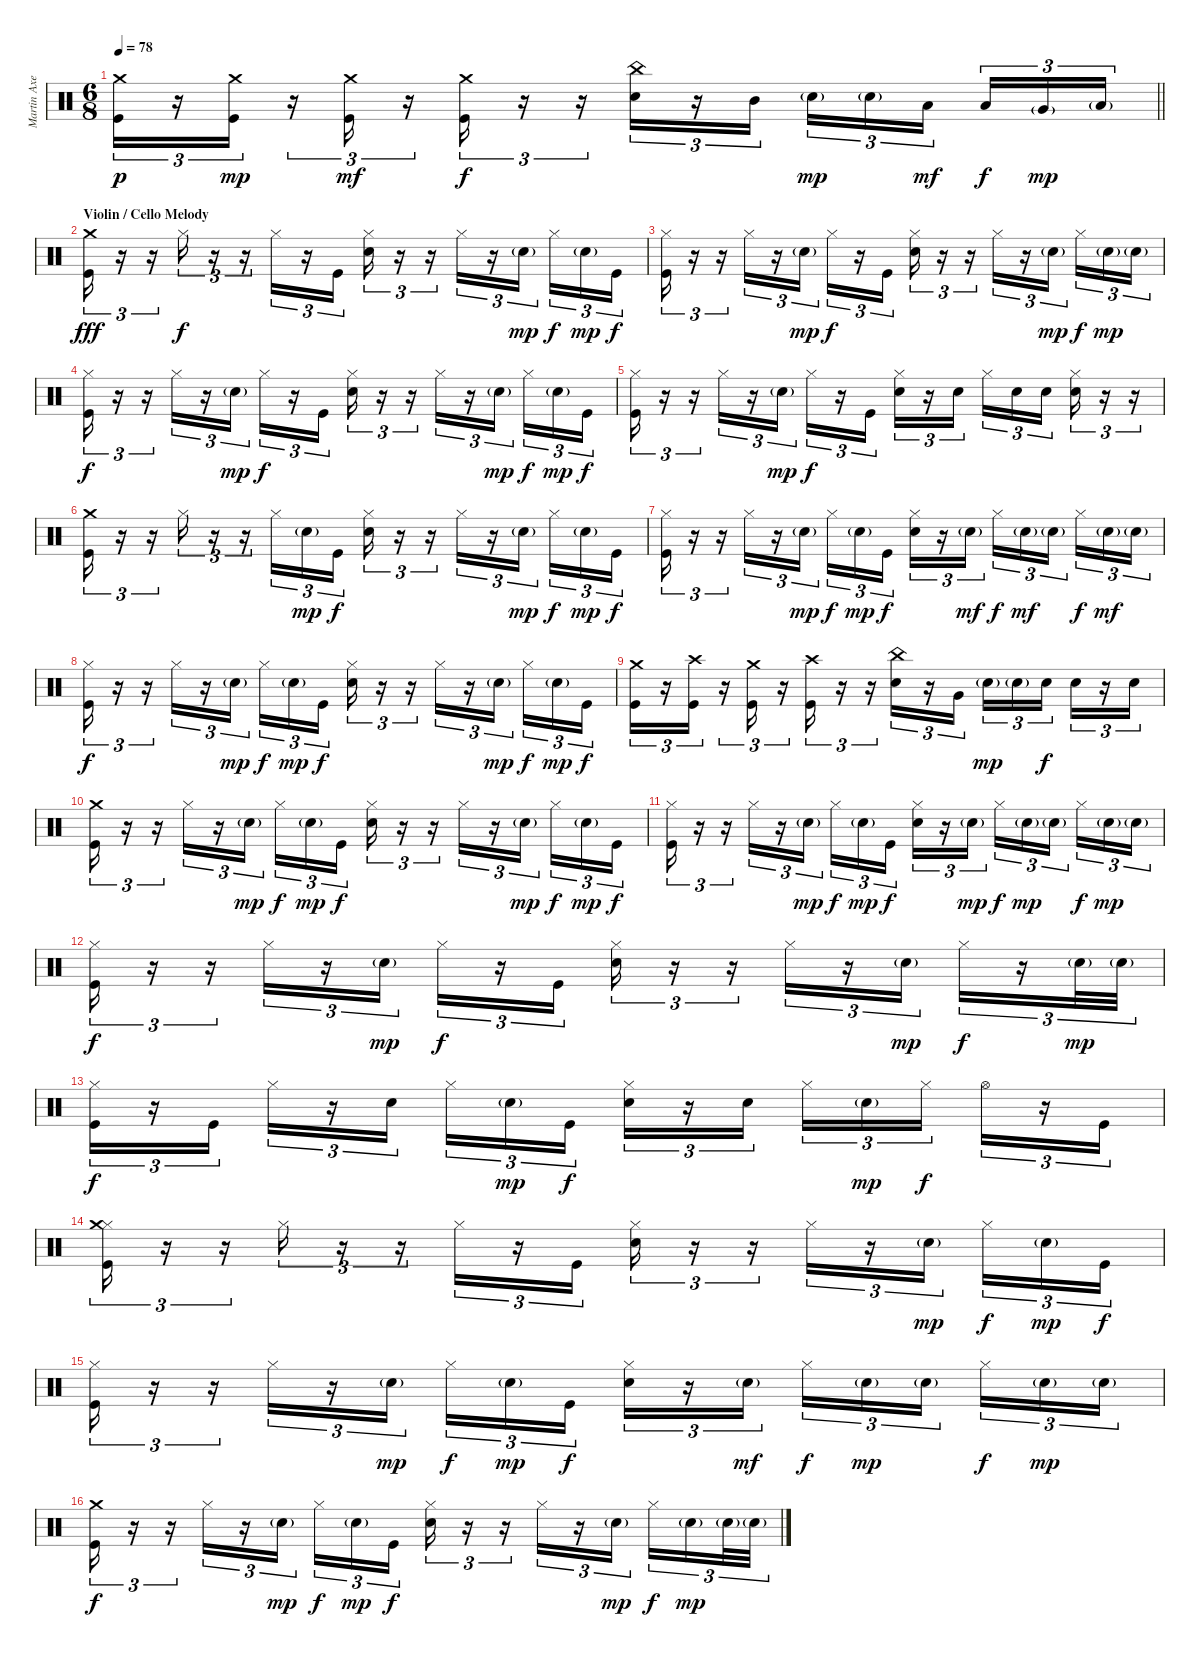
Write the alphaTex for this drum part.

\track ("Martin Axenrot" "Martin Axe") {instrument percussion}
\staff {score}
\articulation defaults
\ts (6 8)
\tempo 78
\clef neutral
\barLineRight lightlight
\ks c
("Crash medium (hit)" "Kick (hit)").16{tu (3 2) dy p} r.16{tu (3 2)} ("Crash medium (hit)" "Kick (hit)").16{tu (3 2) dy mp} r.16{tu (3 2)} ("Crash medium (hit)" "Kick (hit)").16{tu (3 2) dy mf} r.16{tu (3 2)} ("Crash medium (hit)" "Kick (hit)").16{tu (3 2) dy f} r.16{tu (3 2)} r.16{tu (3 2)} ("China (hit)" "Snare (hit) 2").16{tu (3 2)} r.16{tu (3 2)} "Mid Tom (hit)".16{tu (3 2) beam splitsecondary} "Snare (hit) 2"{g}.16{tu (3 2) dy mp} "Snare (hit) 2"{g}.16{tu (3 2)} "Low Tom (hit)".16{tu (3 2) dy mf beam splitsecondary} "Low Tom (hit)".16{tu (3 2) dy f} "Very Low Tom (hit)"{g}.16{tu (3 2) dy mp} "Low Floor Tom (hit)"{g}.16{tu (3 2)} |
\section ("" "Violin / Cello Melody")
("Crash medium (hit)" "Kick (hit)").16{tu (3 2) dy fff} r.16{tu (3 2)} r.16{tu (3 2)} "Hi-Hat (closed)".16{tu (3 2) dy f} r.16{tu (3 2)} r.16{tu (3 2)} "Hi-Hat (closed)".16{tu (3 2)} r.16{tu (3 2)} "Kick (hit)".16{tu (3 2)} ("Hi-Hat (closed)" "Snare (hit) 2").16{tu (3 2)} r.16{tu (3 2)} r.16{tu (3 2)} "Hi-Hat (closed)".16{tu (3 2)} r.16{tu (3 2)} "Snare (hit) 2"{g}.16{tu (3 2) dy mp beam splitsecondary} "Hi-Hat (closed)".16{tu (3 2) dy f} "Snare (hit) 2"{g}.16{tu (3 2) dy mp} "Kick (hit)".16{tu (3 2) dy f} |
("Hi-Hat (closed)" "Kick (hit)").16{tu (3 2)} r.16{tu (3 2)} r.16{tu (3 2)} "Hi-Hat (closed)".16{tu (3 2)} r.16{tu (3 2)} "Snare (hit) 2"{g}.16{tu (3 2) dy mp} "Hi-Hat (closed)".16{tu (3 2) dy f} r.16{tu (3 2)} "Kick (hit)".16{tu (3 2)} ("Hi-Hat (closed)" "Snare (hit) 2").16{tu (3 2)} r.16{tu (3 2)} r.16{tu (3 2)} "Hi-Hat (closed)".16{tu (3 2)} r.16{tu (3 2)} "Snare (hit) 2"{g}.16{tu (3 2) dy mp beam splitsecondary} "Hi-Hat (closed)".16{tu (3 2) dy f} "Snare (hit) 2"{g}.16{tu (3 2) dy mp} "Snare (hit) 2"{g}.16{tu (3 2)} |
("Hi-Hat (closed)" "Kick (hit)").16{tu (3 2) dy f} r.16{tu (3 2)} r.16{tu (3 2)} "Hi-Hat (closed)".16{tu (3 2)} r.16{tu (3 2)} "Snare (hit) 2"{g}.16{tu (3 2) dy mp} "Hi-Hat (closed)".16{tu (3 2) dy f} r.16{tu (3 2)} "Kick (hit)".16{tu (3 2)} ("Hi-Hat (closed)" "Snare (hit) 2").16{tu (3 2)} r.16{tu (3 2)} r.16{tu (3 2)} "Hi-Hat (closed)".16{tu (3 2)} r.16{tu (3 2)} "Snare (hit) 2"{g}.16{tu (3 2) dy mp beam splitsecondary} "Hi-Hat (closed)".16{tu (3 2) dy f} "Snare (hit) 2"{g}.16{tu (3 2) dy mp} "Kick (hit)".16{tu (3 2) dy f} |
("Hi-Hat (closed)" "Kick (hit)").16{tu (3 2)} r.16{tu (3 2)} r.16{tu (3 2)} "Hi-Hat (closed)".16{tu (3 2)} r.16{tu (3 2)} "Snare (hit) 2"{g}.16{tu (3 2) dy mp} "Hi-Hat (closed)".16{tu (3 2) dy f} r.16{tu (3 2)} "Kick (hit)".16{tu (3 2)} ("Hi-Hat (closed)" "Snare (hit) 2").16{tu (3 2)} r.16{tu (3 2)} "Snare (hit) 2".16{tu (3 2) beam splitsecondary} "Hi-Hat (closed)".16{tu (3 2)} "Snare (hit) 2".16{tu (3 2)} "Snare (hit) 2".16{tu (3 2) beam splitsecondary} ("Hi-Hat (closed)" "Snare (hit) 2").16{tu (3 2)} r.16{tu (3 2)} r.16{tu (3 2)} |
("Crash medium (hit)" "Kick (hit)").16{tu (3 2)} r.16{tu (3 2)} r.16{tu (3 2)} "Hi-Hat (closed)".16{tu (3 2)} r.16{tu (3 2)} r.16{tu (3 2)} "Hi-Hat (closed)".16{tu (3 2)} "Snare (hit) 2"{g}.16{tu (3 2) dy mp} "Kick (hit)".16{tu (3 2) dy f} ("Hi-Hat (closed)" "Snare (hit) 2").16{tu (3 2)} r.16{tu (3 2)} r.16{tu (3 2)} "Hi-Hat (closed)".16{tu (3 2)} r.16{tu (3 2)} "Snare (hit) 2"{g}.16{tu (3 2) dy mp beam splitsecondary} "Hi-Hat (closed)".16{tu (3 2) dy f} "Snare (hit) 2"{g}.16{tu (3 2) dy mp} "Kick (hit)".16{tu (3 2) dy f} |
("Hi-Hat (closed)" "Kick (hit)").16{tu (3 2)} r.16{tu (3 2)} r.16{tu (3 2)} "Hi-Hat (closed)".16{tu (3 2)} r.16{tu (3 2)} "Snare (hit) 2"{g}.16{tu (3 2) dy mp beam splitsecondary} "Hi-Hat (closed)".16{tu (3 2) dy f} "Snare (hit) 2"{g}.16{tu (3 2) dy mp} "Kick (hit)".16{tu (3 2) dy f} ("Hi-Hat (closed)" "Snare (hit) 2").16{tu (3 2)} r.16{tu (3 2)} "Snare (hit) 2"{g}.16{tu (3 2) dy mf beam splitsecondary} "Hi-Hat (closed)".16{tu (3 2) dy f} "Snare (hit) 2"{g}.16{tu (3 2) dy mf} "Snare (hit) 2"{g}.16{tu (3 2) beam splitsecondary} "Hi-Hat (closed)".16{tu (3 2) dy f} "Snare (hit) 2"{g}.16{tu (3 2) dy mf} "Snare (hit) 2"{g}.16{tu (3 2)} |
("Hi-Hat (closed)" "Kick (hit)").16{tu (3 2) dy f} r.16{tu (3 2)} r.16{tu (3 2)} "Hi-Hat (closed)".16{tu (3 2)} r.16{tu (3 2)} "Snare (hit) 2"{g}.16{tu (3 2) dy mp beam splitsecondary} "Hi-Hat (closed)".16{tu (3 2) dy f} "Snare (hit) 2"{g}.16{tu (3 2) dy mp} "Kick (hit)".16{tu (3 2) dy f} ("Hi-Hat (closed)" "Snare (hit) 2").16{tu (3 2)} r.16{tu (3 2)} r.16{tu (3 2)} "Hi-Hat (closed)".16{tu (3 2)} r.16{tu (3 2)} "Snare (hit) 2"{g}.16{tu (3 2) dy mp beam splitsecondary} "Hi-Hat (closed)".16{tu (3 2) dy f} "Snare (hit) 2"{g}.16{tu (3 2) dy mp} "Kick (hit)".16{tu (3 2) dy f} |
("Crash medium (hit)" "Kick (hit)").16{tu (3 2)} r.16{tu (3 2)} ("Crash high (hit)" "Kick (hit)").16{tu (3 2)} r.16{tu (3 2)} ("Crash medium (hit)" "Kick (hit)").16{tu (3 2)} r.16{tu (3 2)} ("Crash high (hit)" "Kick (hit)").16{tu (3 2)} r.16{tu (3 2)} r.16{tu (3 2)} ("China (hit)" "Snare (hit) 2").16{tu (3 2)} r.16{tu (3 2)} "Very Low Tom (hit)".16{tu (3 2) beam splitsecondary} "Snare (hit) 2"{g}.16{tu (3 2) dy mp} "Snare (hit) 2"{g}.16{tu (3 2)} "Snare (hit) 2".16{tu (3 2) dy f beam splitsecondary} "Snare (hit) 2".16{tu (3 2)} r.16{tu (3 2)} "Snare (hit) 2".16{tu (3 2)} |
("Crash medium (hit)" "Kick (hit)").16{tu (3 2)} r.16{tu (3 2)} r.16{tu (3 2)} "Hi-Hat (closed)".16{tu (3 2)} r.16{tu (3 2)} "Snare (hit) 2"{g}.16{tu (3 2) dy mp beam splitsecondary} "Hi-Hat (closed)".16{tu (3 2) dy f} "Snare (hit) 2"{g}.16{tu (3 2) dy mp} "Kick (hit)".16{tu (3 2) dy f} ("Hi-Hat (closed)" "Snare (hit) 2").16{tu (3 2)} r.16{tu (3 2)} r.16{tu (3 2)} "Hi-Hat (closed)".16{tu (3 2)} r.16{tu (3 2)} "Snare (hit) 2"{g}.16{tu (3 2) dy mp beam splitsecondary} "Hi-Hat (closed)".16{tu (3 2) dy f} "Snare (hit) 2"{g}.16{tu (3 2) dy mp} "Kick (hit)".16{tu (3 2) dy f} |
("Hi-Hat (closed)" "Kick (hit)").16{tu (3 2)} r.16{tu (3 2)} r.16{tu (3 2)} "Hi-Hat (closed)".16{tu (3 2)} r.16{tu (3 2)} "Snare (hit) 2"{g}.16{tu (3 2) dy mp beam splitsecondary} "Hi-Hat (closed)".16{tu (3 2) dy f} "Snare (hit) 2"{g}.16{tu (3 2) dy mp} "Kick (hit)".16{tu (3 2) dy f} ("Hi-Hat (closed)" "Snare (hit) 2").16{tu (3 2)} r.16{tu (3 2)} "Snare (hit) 2"{g}.16{tu (3 2) dy mp beam splitsecondary} "Hi-Hat (closed)".16{tu (3 2) dy f} "Snare (hit) 2"{g}.16{tu (3 2) dy mp} "Snare (hit) 2"{g}.16{tu (3 2) beam splitsecondary} "Hi-Hat (closed)".16{tu (3 2) dy f} "Snare (hit) 2"{g}.16{tu (3 2) dy mp} "Snare (hit) 2"{g}.16{tu (3 2)} |
("Hi-Hat (closed)" "Kick (hit)").16{tu (3 2) dy f} r.16{tu (3 2)} r.16{tu (3 2)} "Hi-Hat (closed)".16{tu (3 2)} r.16{tu (3 2)} "Snare (hit) 2"{g}.16{tu (3 2) dy mp} "Hi-Hat (closed)".16{tu (3 2) dy f} r.16{tu (3 2)} "Kick (hit)".16{tu (3 2)} ("Hi-Hat (closed)" "Snare (hit) 2").16{tu (3 2)} r.16{tu (3 2)} r.16{tu (3 2)} "Hi-Hat (closed)".16{tu (3 2)} r.16{tu (3 2)} "Snare (hit) 2"{g}.16{tu (3 2) dy mp} "Hi-Hat (closed)".16{tu (3 2) dy f} r.16{tu (3 2)} "Snare (hit) 2"{g}.32{tu (3 2) dy mp} "Snare (hit) 2"{g}.32{tu (3 2)} |
("Hi-Hat (closed)" "Kick (hit)").16{tu (3 2) dy f} r.16{tu (3 2)} "Kick (hit)".16{tu (3 2)} "Hi-Hat (closed)".16{tu (3 2)} r.16{tu (3 2)} "Snare (hit) 2".16{tu (3 2) beam splitsecondary} "Hi-Hat (closed)".16{tu (3 2)} "Snare (hit) 2"{g}.16{tu (3 2) dy mp} "Kick (hit)".16{tu (3 2) dy f} ("Hi-Hat (closed)" "Snare (hit) 2").16{tu (3 2)} r.16{tu (3 2)} "Snare (hit) 2".16{tu (3 2) beam splitsecondary} "Hi-Hat (closed)".16{tu (3 2)} "Snare (hit) 2"{g}.16{tu (3 2) dy mp} "Hi-Hat (closed)".16{tu (3 2) dy f beam splitsecondary} "Hi-Hat (open)".16{tu (3 2)} r.16{tu (3 2)} "Kick (hit)".16{tu (3 2)} |
("Hi-Hat (closed)" "Crash medium (hit)" "Kick (hit)").16{tu (3 2)} r.16{tu (3 2)} r.16{tu (3 2)} "Hi-Hat (closed)".16{tu (3 2)} r.16{tu (3 2)} r.16{tu (3 2)} "Hi-Hat (closed)".16{tu (3 2)} r.16{tu (3 2)} "Kick (hit)".16{tu (3 2)} ("Hi-Hat (closed)" "Snare (hit) 2").16{tu (3 2)} r.16{tu (3 2)} r.16{tu (3 2)} "Hi-Hat (closed)".16{tu (3 2)} r.16{tu (3 2)} "Snare (hit) 2"{g}.16{tu (3 2) dy mp beam splitsecondary} "Hi-Hat (closed)".16{tu (3 2) dy f} "Snare (hit) 2"{g}.16{tu (3 2) dy mp} "Kick (hit)".16{tu (3 2) dy f} |
("Hi-Hat (closed)" "Kick (hit)").16{tu (3 2)} r.16{tu (3 2)} r.16{tu (3 2)} "Hi-Hat (closed)".16{tu (3 2)} r.16{tu (3 2)} "Snare (hit) 2"{g}.16{tu (3 2) dy mp beam splitsecondary} "Hi-Hat (closed)".16{tu (3 2) dy f} "Snare (hit) 2"{g}.16{tu (3 2) dy mp} "Kick (hit)".16{tu (3 2) dy f} ("Hi-Hat (closed)" "Snare (hit) 2").16{tu (3 2)} r.16{tu (3 2)} "Snare (hit) 2"{g}.16{tu (3 2) dy mf beam splitsecondary} "Hi-Hat (closed)".16{tu (3 2) dy f} "Snare (hit) 2"{g}.16{tu (3 2) dy mp} "Snare (hit) 2"{g}.16{tu (3 2) beam splitsecondary} "Hi-Hat (closed)".16{tu (3 2) dy f} "Snare (hit) 2"{g}.16{tu (3 2) dy mp} "Snare (hit) 2"{g}.16{tu (3 2)} |
("Crash medium (hit)" "Kick (hit)").16{tu (3 2) dy f} r.16{tu (3 2)} r.16{tu (3 2)} "Hi-Hat (closed)".16{tu (3 2)} r.16{tu (3 2)} "Snare (hit) 2"{g}.16{tu (3 2) dy mp beam splitsecondary} "Hi-Hat (closed)".16{tu (3 2) dy f} "Snare (hit) 2"{g}.16{tu (3 2) dy mp} "Kick (hit)".16{tu (3 2) dy f} ("Hi-Hat (closed)" "Snare (hit) 2").16{tu (3 2)} r.16{tu (3 2)} r.16{tu (3 2)} "Hi-Hat (closed)".16{tu (3 2)} r.16{tu (3 2)} "Snare (hit) 2"{g}.16{tu (3 2) dy mp beam splitsecondary} "Hi-Hat (closed)".16{tu (3 2) dy f} "Snare (hit) 2"{g}.16{tu (3 2) dy mp} "Snare (hit) 2"{g}.32{tu (3 2)} "Snare (hit) 2"{g}.32{tu (3 2)}
